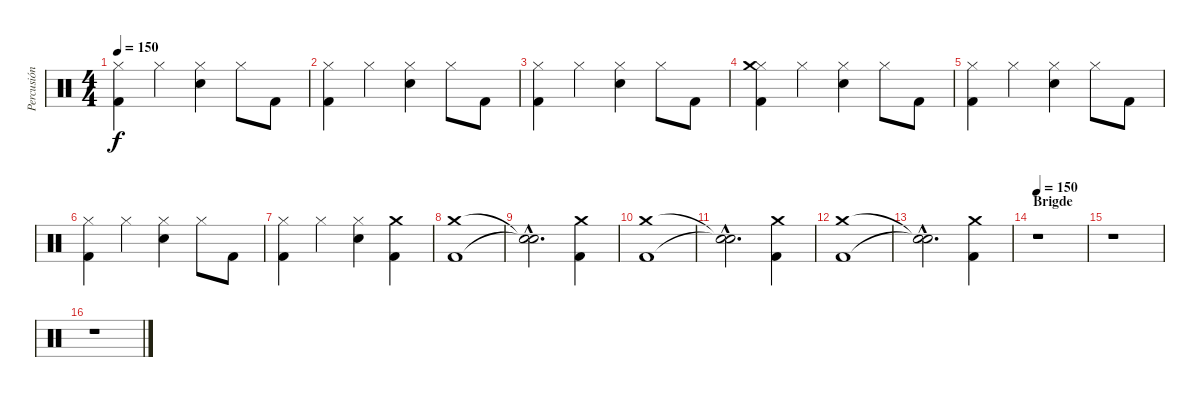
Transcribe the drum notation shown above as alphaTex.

\track ("Percusión" "Percusión") {instrument percussion}
\staff {score}
\articulation defaults
\ts (4 4)
\tempo 150
\clef neutral
\ks c
("Hi-Hat (closed)" "Kick (hit) 2").4{dy f} "Hi-Hat (closed)".4 ("Hi-Hat (closed)" "Snare (hit) 2").4 "Hi-Hat (closed)".8 "Kick (hit) 2".8 |
("Hi-Hat (closed)" "Kick (hit) 2").4 "Hi-Hat (closed)".4 ("Hi-Hat (closed)" "Snare (hit) 2").4 "Hi-Hat (closed)".8 "Kick (hit) 2".8 |
("Hi-Hat (closed)" "Kick (hit) 2").4 "Hi-Hat (closed)".4 ("Hi-Hat (closed)" "Snare (hit) 2").4 "Hi-Hat (closed)".8 "Kick (hit) 2".8 |
("Hi-Hat (closed)" "Crash medium (hit)" "Kick (hit) 2").4 "Hi-Hat (closed)".4 ("Hi-Hat (closed)" "Snare (hit) 2").4 "Hi-Hat (closed)".8 "Kick (hit) 2".8 |
("Hi-Hat (closed)" "Kick (hit) 2").4 "Hi-Hat (closed)".4 ("Hi-Hat (closed)" "Snare (hit) 2").4 "Hi-Hat (closed)".8 "Kick (hit) 2".8 |
("Hi-Hat (closed)" "Kick (hit) 2").4 "Hi-Hat (closed)".4 ("Hi-Hat (closed)" "Snare (hit) 2").4 "Hi-Hat (closed)".8 "Kick (hit) 2".8 |
("Hi-Hat (closed)" "Kick (hit) 2").4 "Hi-Hat (closed)".4 ("Hi-Hat (closed)" "Snare (hit) 2").4 ("Crash medium (hit)" "Kick (hit) 2").4 |
\section ("" "")
("Kick (hit) 2" "Crash medium (hit)").1 |
("Snare (hit)"{hac t} "Snare (hit)"{hac t}).2{d} ("Kick (hit) 2" "Crash medium (hit)").4 |
("Kick (hit) 2" "Crash medium (hit)").1 |
("Snare (hit)"{hac t} "Snare (hit)"{hac t}).2{d} ("Kick (hit) 2" "Crash medium (hit)").4 |
("Kick (hit) 2" "Crash medium (hit)").1 |
("Snare (hit)"{hac t} "Snare (hit)"{hac t}).2{d} ("Kick (hit) 2" "Crash medium (hit)").4 |
\section ("" "Brigde")
\tempo 150
r.1 |
r.1 |
r.1
